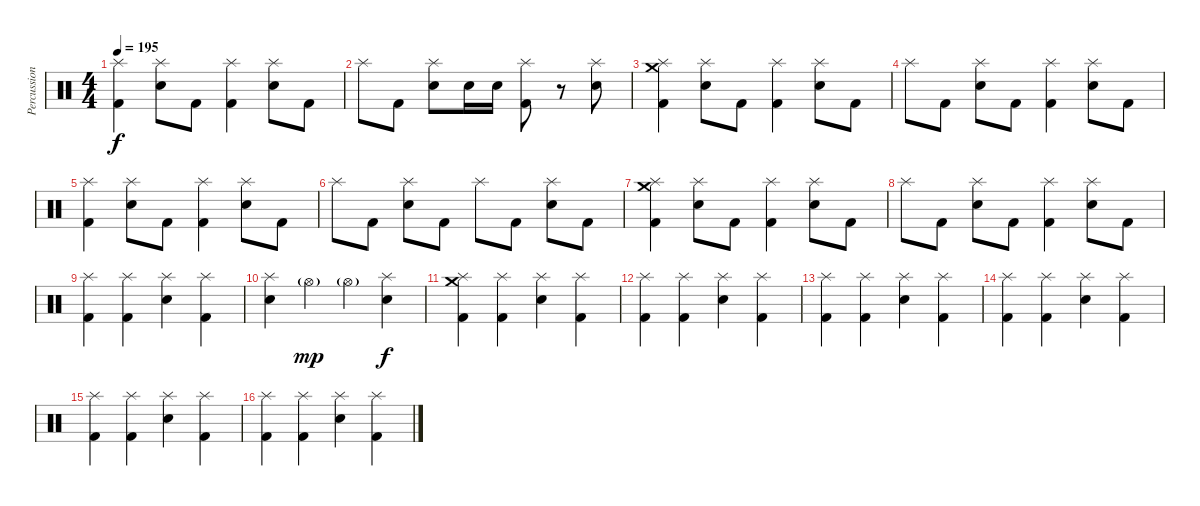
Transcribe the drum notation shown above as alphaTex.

\track ("Percussion" "Percussion") {instrument percussion}
\staff {score}
\articulation defaults
\ts (4 4)
\tempo 195
\clef neutral
\ks c
("Splash (hit)" "Kick (hit) 2").4{dy f} ("Splash (hit)" "Electric Snare (hit)").8 "Kick (hit) 2".8 ("Splash (hit)" "Kick (hit) 2").4 ("Splash (hit)" "Electric Snare (hit)").8 "Kick (hit) 2".8 |
"Splash (hit)".8 "Kick (hit) 2".8 ("Splash (hit)" "Electric Snare (hit)").8 "Electric Snare (hit)".16{volume 11} "Electric Snare (hit)".16 ("Splash (hit)" "Kick (hit) 2").8{volume 13} r.8 ("Splash (hit)" "Electric Snare (hit)").8 |
("Crash medium (hit)" "Splash (hit)" "Kick (hit) 2").4 ("Splash (hit)" "Electric Snare (hit)").8 "Kick (hit) 2".8 ("Splash (hit)" "Kick (hit) 2").4 ("Splash (hit)" "Electric Snare (hit)").8 "Kick (hit) 2".8 |
"Splash (hit)".8 "Kick (hit) 2".8 ("Splash (hit)" "Electric Snare (hit)").8 "Kick (hit) 2".8 ("Splash (hit)" "Kick (hit) 2").4 ("Splash (hit)" "Electric Snare (hit)").8 "Kick (hit) 2".8 |
("Splash (hit)" "Kick (hit) 2").4 ("Splash (hit)" "Electric Snare (hit)").8 "Kick (hit) 2".8 ("Splash (hit)" "Kick (hit) 2").4 ("Splash (hit)" "Electric Snare (hit)").8 "Kick (hit) 2".8 |
"Splash (hit)".8 "Kick (hit) 2".8 ("Splash (hit)" "Electric Snare (hit)").8 "Kick (hit) 2".8 "Splash (hit)".8 "Kick (hit) 2".8 ("Splash (hit)" "Electric Snare (hit)").8 "Kick (hit) 2".8 |
("Crash medium (hit)" "Splash (hit)" "Kick (hit) 2").4 ("Splash (hit)" "Electric Snare (hit)").8 "Kick (hit) 2".8 ("Splash (hit)" "Kick (hit) 2").4 ("Splash (hit)" "Electric Snare (hit)").8 "Kick (hit) 2".8 |
"Splash (hit)".8 "Kick (hit) 2".8 ("Splash (hit)" "Electric Snare (hit)").8 "Kick (hit) 2".8 ("Splash (hit)" "Kick (hit) 2").4 ("Splash (hit)" "Electric Snare (hit)").8 "Kick (hit) 2".8 |
("Splash (hit)" "Kick (hit) 2").4 ("Splash (hit)" "Kick (hit) 2").4 ("Splash (hit)" "Electric Snare (hit)").4 ("Splash (hit)" "Kick (hit) 2").4 |
("Splash (hit)" "Electric Snare (hit)").4 "Hi-Hat (open)"{g}.4{dy mp} "Hi-Hat (open)"{g}.4 ("Splash (hit)" "Electric Snare (hit)").4{dy f} |
("Crash medium (hit)" "Splash (hit)" "Kick (hit) 2").4 ("Splash (hit)" "Kick (hit) 2").4 ("Splash (hit)" "Electric Snare (hit)").4 ("Splash (hit)" "Kick (hit) 2").4 |
("Splash (hit)" "Kick (hit) 2").4 ("Splash (hit)" "Kick (hit) 2").4 ("Splash (hit)" "Electric Snare (hit)").4 ("Splash (hit)" "Kick (hit) 2").4 |
("Splash (hit)" "Kick (hit) 2").4 ("Splash (hit)" "Kick (hit) 2").4 ("Splash (hit)" "Electric Snare (hit)").4 ("Splash (hit)" "Kick (hit) 2").4 |
("Splash (hit)" "Kick (hit) 2").4 ("Splash (hit)" "Kick (hit) 2").4 ("Splash (hit)" "Electric Snare (hit)").4 ("Splash (hit)" "Kick (hit) 2").4 |
("Splash (hit)" "Kick (hit) 2").4 ("Splash (hit)" "Kick (hit) 2").4 ("Splash (hit)" "Electric Snare (hit)").4 ("Splash (hit)" "Kick (hit) 2").4 |
("Splash (hit)" "Kick (hit) 2").4 ("Splash (hit)" "Kick (hit) 2").4 ("Splash (hit)" "Electric Snare (hit)").4 ("Splash (hit)" "Kick (hit) 2").4
